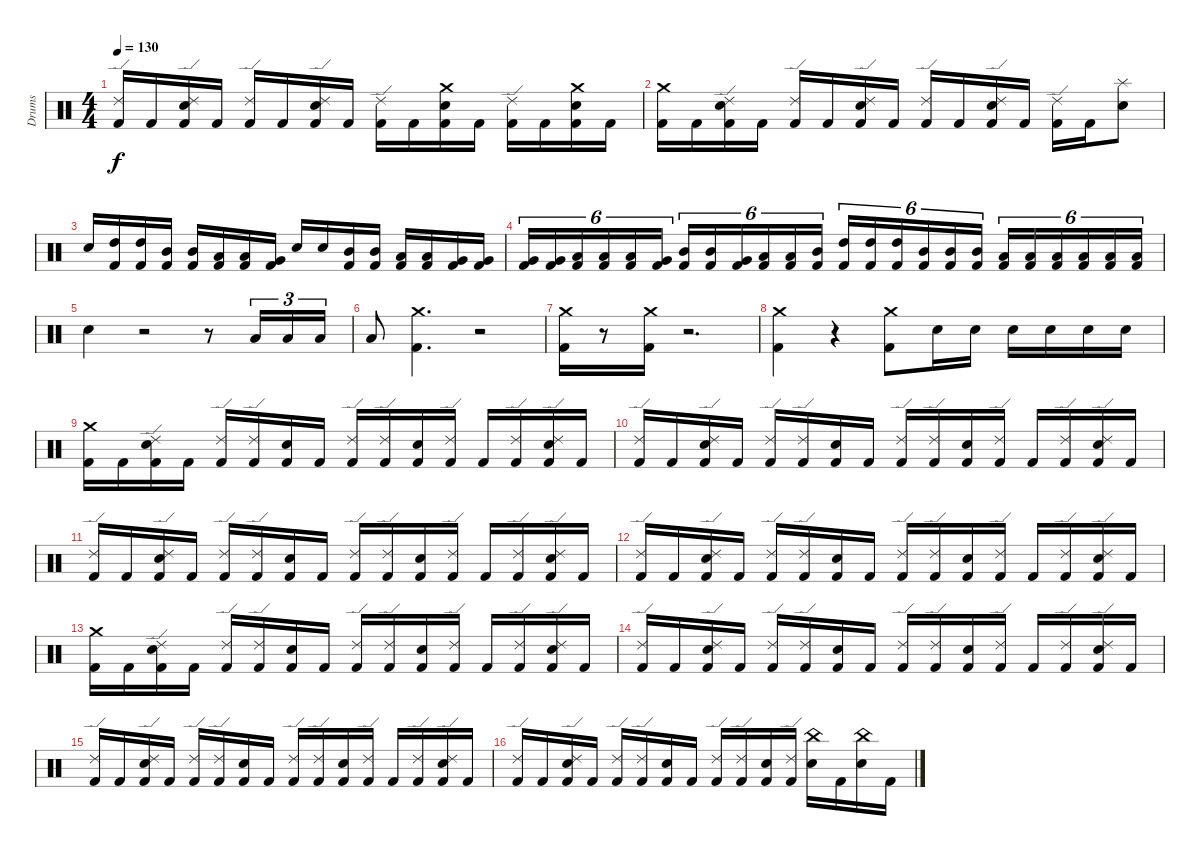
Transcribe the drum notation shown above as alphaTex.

\track ("Drums" "Drums") {instrument percussion}
\staff {score}
\articulation defaults
\ts (4 4)
\tempo 130
\clef neutral
\ks c
("Ride (edge) 2" "Kick (hit) 2").16{dy f} "Kick (hit) 2".16 ("Ride (edge) 2" "Electric Snare (hit)" "Kick (hit) 2").16 "Kick (hit) 2".16 ("Ride (edge) 2" "Kick (hit) 2").16 "Kick (hit) 2".16 ("Ride (edge) 2" "Electric Snare (hit)" "Kick (hit) 2").16 "Kick (hit) 2".16 ("Ride (edge) 2" "Kick (hit) 2").16 "Kick (hit) 2".16 ("Crash medium (hit)" "Electric Snare (hit)" "Kick (hit) 2").16 "Kick (hit) 2".16 ("Ride (edge) 2" "Kick (hit) 2").16 "Kick (hit) 2".16 ("Crash medium (hit)" "Electric Snare (hit)" "Kick (hit) 2").16 "Kick (hit) 2".16 |
("Crash medium (hit)" "Kick (hit) 2").16 "Kick (hit) 2".16 ("Ride (edge) 2" "Electric Snare (hit)" "Kick (hit) 2").16 "Kick (hit) 2".16 ("Ride (edge) 2" "Kick (hit) 2").16 "Kick (hit) 2".16 ("Ride (edge) 2" "Electric Snare (hit)" "Kick (hit) 2").16 "Kick (hit) 2".16 ("Ride (edge) 2" "Kick (hit) 2").16 "Kick (hit) 2".16 ("Ride (edge) 2" "Electric Snare (hit)" "Kick (hit) 2").16 "Kick (hit) 2".16 ("Ride (edge) 2" "Kick (hit) 2").16 "Kick (hit) 2".16 ("Splash (hit)" "Electric Snare (hit)").8 |
"Electric Snare (hit)".16 ("Kick (hit) 2" "High Tom (hit)").16 ("Kick (hit) 2" "High Tom (hit)").16 ("Kick (hit) 2" "Mid Tom (hit)").16 ("Kick (hit) 2" "Mid Tom (hit)").16 ("Kick (hit) 2" "Low Tom (hit)").16 ("Kick (hit) 2" "Low Tom (hit)").16 ("Kick (hit) 2" "Very Low Tom (hit)").16 "Electric Snare (hit)".16 "Electric Snare (hit)".16 ("Kick (hit) 2" "Mid Tom (hit)").16 ("Kick (hit) 2" "Mid Tom (hit)").16 ("Kick (hit) 2" "Low Tom (hit)").16 ("Kick (hit) 2" "Low Tom (hit)").16 ("Kick (hit) 2" "Very Low Tom (hit)").16 ("Kick (hit) 2" "Very Low Tom (hit)").16 |
("Kick (hit) 2" "Very Low Tom (hit)").16{tu (6 4)} ("Kick (hit) 2" "Very Low Tom (hit)").16{tu (6 4)} ("Kick (hit) 2" "Low Floor Tom (hit)").16{tu (6 4)} ("Kick (hit) 2" "Low Tom (hit)").16{tu (6 4)} ("Kick (hit) 2" "Low Tom (hit)").16{tu (6 4)} ("Kick (hit) 2" "Very Low Tom (hit)").16{tu (6 4)} ("Kick (hit) 2" "Mid Tom (hit)").16{tu (6 4)} ("Kick (hit) 2" "Mid Tom (hit)").16{tu (6 4)} ("Kick (hit) 2" "Very Low Tom (hit)").16{tu (6 4)} ("Kick (hit) 2" "Low Tom (hit)").16{tu (6 4)} ("Kick (hit) 2" "Low Tom (hit)").16{tu (6 4)} ("Kick (hit) 2" "Mid Tom (hit)").16{tu (6 4)} ("Kick (hit) 2" "High Tom (hit)").16{tu (6 4)} ("Kick (hit) 2" "High Tom (hit)").16{tu (6 4)} ("Kick (hit) 2" "High Tom (hit)").16{tu (6 4)} ("Kick (hit) 2" "Mid Tom (hit)").16{tu (6 4)} ("Kick (hit) 2" "Mid Tom (hit)").16{tu (6 4)} ("Kick (hit) 2" "Mid Tom (hit)").16{tu (6 4)} ("Kick (hit) 2" "Low Tom (hit)").16{tu (6 4)} ("Kick (hit) 2" "Low Tom (hit)").16{tu (6 4)} ("Kick (hit) 2" "Low Tom (hit)").16{tu (6 4)} ("Kick (hit) 2" "Low Floor Tom (hit)").16{tu (6 4)} ("Kick (hit) 2" "Low Floor Tom (hit)").16{tu (6 4)} ("Kick (hit) 2" "Low Floor Tom (hit)").16{tu (6 4)} |
"Electric Snare (hit)".4 r.2 r.8 "Low Tom (hit)".16{tu (3 2)} "Low Tom (hit)".16{tu (3 2)} "Low Tom (hit)".16{tu (3 2)} |
"Low Floor Tom (hit)".8 ("Crash medium (hit)" "Kick (hit) 2").4{d} r.2 |
("Crash medium (hit)" "Kick (hit) 2").16 r.8 ("Crash medium (hit)" "Kick (hit) 2").16 r.2{d} |
("Crash medium (hit)" "Kick (hit) 2").4 r.4 ("Crash medium (hit)" "Kick (hit) 2").8 "Electric Snare (hit)".16 "Electric Snare (hit)".16 "Electric Snare (hit)".16 "Electric Snare (hit)".16 "Electric Snare (hit)".16 "Electric Snare (hit)".16 |
("Crash medium (hit)" "Kick (hit) 2").16 "Kick (hit) 2".16 ("Electric Snare (hit)" "Ride (edge) 2" "Kick (hit) 2").16 "Kick (hit) 2".16 ("Ride (edge) 2" "Kick (hit) 2").16 ("Ride (edge) 2" "Kick (hit) 2").16 ("Electric Snare (hit)" "Kick (hit) 2").16 "Kick (hit) 2".16 ("Ride (edge) 2" "Kick (hit) 2").16 ("Ride (edge) 2" "Kick (hit) 2").16 ("Electric Snare (hit)" "Kick (hit) 2").16 ("Ride (edge) 2" "Kick (hit) 2").16 "Kick (hit) 2".16 ("Ride (edge) 2" "Kick (hit) 2").16 ("Electric Snare (hit)" "Ride (edge) 2" "Kick (hit) 2").16 "Kick (hit) 2".16 |
("Ride (edge) 2" "Kick (hit) 2").16 "Kick (hit) 2".16 ("Electric Snare (hit)" "Ride (edge) 2" "Kick (hit) 2").16 "Kick (hit) 2".16 ("Ride (edge) 2" "Kick (hit) 2").16 ("Ride (edge) 2" "Kick (hit) 2").16 ("Electric Snare (hit)" "Kick (hit) 2").16 "Kick (hit) 2".16 ("Ride (edge) 2" "Kick (hit) 2").16 ("Ride (edge) 2" "Kick (hit) 2").16 ("Electric Snare (hit)" "Kick (hit) 2").16 ("Ride (edge) 2" "Kick (hit) 2").16 "Kick (hit) 2".16 ("Ride (edge) 2" "Kick (hit) 2").16 ("Electric Snare (hit)" "Ride (edge) 2" "Kick (hit) 2").16 "Kick (hit) 2".16 |
("Ride (edge) 2" "Kick (hit) 2").16 "Kick (hit) 2".16 ("Electric Snare (hit)" "Ride (edge) 2" "Kick (hit) 2").16 "Kick (hit) 2".16 ("Ride (edge) 2" "Kick (hit) 2").16 ("Ride (edge) 2" "Kick (hit) 2").16 ("Electric Snare (hit)" "Kick (hit) 2").16 "Kick (hit) 2".16 ("Ride (edge) 2" "Kick (hit) 2").16 ("Ride (edge) 2" "Kick (hit) 2").16 ("Electric Snare (hit)" "Kick (hit) 2").16 ("Ride (edge) 2" "Kick (hit) 2").16 "Kick (hit) 2".16 ("Ride (edge) 2" "Kick (hit) 2").16 ("Electric Snare (hit)" "Ride (edge) 2" "Kick (hit) 2").16 "Kick (hit) 2".16 |
("Ride (edge) 2" "Kick (hit) 2").16 "Kick (hit) 2".16 ("Electric Snare (hit)" "Ride (edge) 2" "Kick (hit) 2").16 "Kick (hit) 2".16 ("Ride (edge) 2" "Kick (hit) 2").16 ("Ride (edge) 2" "Kick (hit) 2").16 ("Electric Snare (hit)" "Kick (hit) 2").16 "Kick (hit) 2".16 ("Ride (edge) 2" "Kick (hit) 2").16 ("Ride (edge) 2" "Kick (hit) 2").16 ("Electric Snare (hit)" "Kick (hit) 2").16 ("Ride (edge) 2" "Kick (hit) 2").16 "Kick (hit) 2".16 ("Ride (edge) 2" "Kick (hit) 2").16 ("Electric Snare (hit)" "Ride (edge) 2" "Kick (hit) 2").16 "Kick (hit) 2".16 |
("Crash medium (hit)" "Kick (hit) 2").16 "Kick (hit) 2".16 ("Electric Snare (hit)" "Ride (edge) 2" "Kick (hit) 2").16 "Kick (hit) 2".16 ("Ride (edge) 2" "Kick (hit) 2").16 ("Ride (edge) 2" "Kick (hit) 2").16 ("Electric Snare (hit)" "Kick (hit) 2").16 "Kick (hit) 2".16 ("Ride (edge) 2" "Kick (hit) 2").16 ("Ride (edge) 2" "Kick (hit) 2").16 ("Electric Snare (hit)" "Kick (hit) 2").16 ("Ride (edge) 2" "Kick (hit) 2").16 "Kick (hit) 2".16 ("Ride (edge) 2" "Kick (hit) 2").16 ("Electric Snare (hit)" "Ride (edge) 2" "Kick (hit) 2").16 "Kick (hit) 2".16 |
("Ride (edge) 2" "Kick (hit) 2").16 "Kick (hit) 2".16 ("Electric Snare (hit)" "Ride (edge) 2" "Kick (hit) 2").16 "Kick (hit) 2".16 ("Ride (edge) 2" "Kick (hit) 2").16 ("Ride (edge) 2" "Kick (hit) 2").16 ("Electric Snare (hit)" "Kick (hit) 2").16 "Kick (hit) 2".16 ("Ride (edge) 2" "Kick (hit) 2").16 ("Ride (edge) 2" "Kick (hit) 2").16 ("Electric Snare (hit)" "Kick (hit) 2").16 ("Ride (edge) 2" "Kick (hit) 2").16 "Kick (hit) 2".16 ("Ride (edge) 2" "Kick (hit) 2").16 ("Electric Snare (hit)" "Ride (edge) 2" "Kick (hit) 2").16 "Kick (hit) 2".16 |
("Ride (edge) 2" "Kick (hit) 2").16 "Kick (hit) 2".16 ("Electric Snare (hit)" "Ride (edge) 2" "Kick (hit) 2").16 "Kick (hit) 2".16 ("Ride (edge) 2" "Kick (hit) 2").16 ("Ride (edge) 2" "Kick (hit) 2").16 ("Electric Snare (hit)" "Kick (hit) 2").16 "Kick (hit) 2".16 ("Ride (edge) 2" "Kick (hit) 2").16 ("Ride (edge) 2" "Kick (hit) 2").16 ("Electric Snare (hit)" "Kick (hit) 2").16 ("Ride (edge) 2" "Kick (hit) 2").16 "Kick (hit) 2".16 ("Ride (edge) 2" "Kick (hit) 2").16 ("Electric Snare (hit)" "Ride (edge) 2" "Kick (hit) 2").16 "Kick (hit) 2".16 |
("Ride (edge) 2" "Kick (hit) 2").16 "Kick (hit) 2".16 ("Electric Snare (hit)" "Ride (edge) 2" "Kick (hit) 2").16 "Kick (hit) 2".16 ("Ride (edge) 2" "Kick (hit) 2").16 ("Ride (edge) 2" "Kick (hit) 2").16 ("Electric Snare (hit)" "Kick (hit) 2").16 "Kick (hit) 2".16 ("Ride (edge) 2" "Kick (hit) 2").16 ("Ride (edge) 2" "Kick (hit) 2").16 ("Electric Snare (hit)" "Kick (hit) 2").16 ("Ride (edge) 2" "Kick (hit) 2").16 ("China (hit)" "Electric Snare (hit)").16 "Kick (hit) 2".16 ("China (hit)" "Electric Snare (hit)").16 "Kick (hit) 2".16
